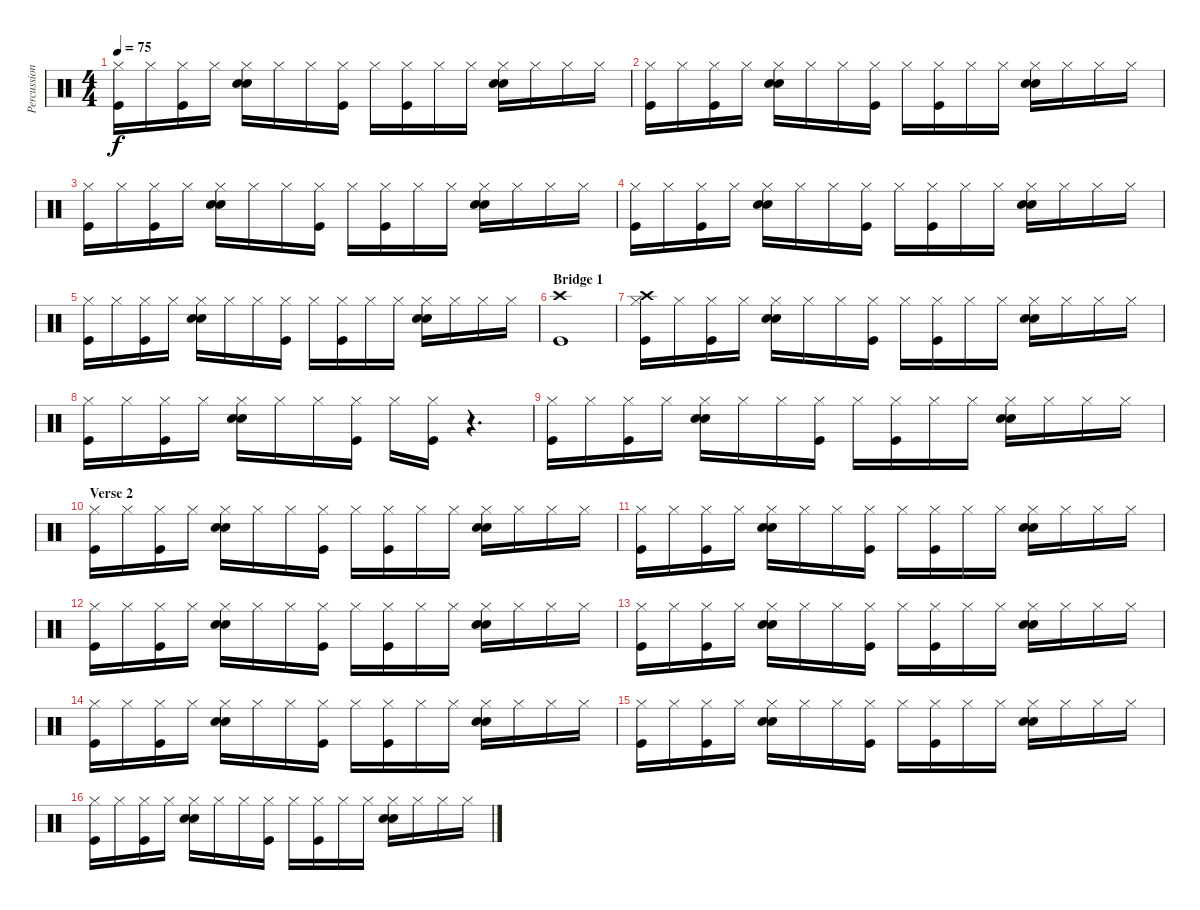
\track ("Percussion" "Percussion") {instrument percussion}
\staff {score}
\articulation defaults
\ts (4 4)
\tempo 75
\clef neutral
\ks c
("Kick (hit)" "Hi-Hat (closed)").16{dy f} "Hi-Hat (closed)".16 ("Kick (hit)" "Hi-Hat (closed)").16 "Hi-Hat (closed)".16 ("Snare (hit) 2" "Electric Snare (hit)" "Hi-Hat (closed)").16 "Hi-Hat (closed)".16 "Hi-Hat (closed)".16 ("Kick (hit)" "Hi-Hat (closed)").16 "Hi-Hat (closed)".16 ("Kick (hit)" "Hi-Hat (closed)").16 "Hi-Hat (closed)".16 "Hi-Hat (closed)".16 ("Snare (hit) 2" "Electric Snare (hit)" "Hi-Hat (closed)").16 "Hi-Hat (closed)".16 "Hi-Hat (closed)".16 "Hi-Hat (closed)".16 |
("Kick (hit)" "Hi-Hat (closed)").16 "Hi-Hat (closed)".16 ("Kick (hit)" "Hi-Hat (closed)").16 "Hi-Hat (closed)".16 ("Snare (hit) 2" "Electric Snare (hit)" "Hi-Hat (closed)").16 "Hi-Hat (closed)".16 "Hi-Hat (closed)".16 ("Kick (hit)" "Hi-Hat (closed)").16 "Hi-Hat (closed)".16 ("Kick (hit)" "Hi-Hat (closed)").16 "Hi-Hat (closed)".16 "Hi-Hat (closed)".16 ("Snare (hit) 2" "Electric Snare (hit)" "Hi-Hat (closed)").16 "Hi-Hat (closed)".16 "Hi-Hat (closed)".16 "Hi-Hat (closed)".16 |
("Kick (hit)" "Hi-Hat (closed)").16 "Hi-Hat (closed)".16 ("Kick (hit)" "Hi-Hat (closed)").16 "Hi-Hat (closed)".16 ("Snare (hit) 2" "Electric Snare (hit)" "Hi-Hat (closed)").16 "Hi-Hat (closed)".16 "Hi-Hat (closed)".16 ("Kick (hit)" "Hi-Hat (closed)").16 "Hi-Hat (closed)".16 ("Kick (hit)" "Hi-Hat (closed)").16 "Hi-Hat (closed)".16 "Hi-Hat (closed)".16 ("Snare (hit) 2" "Electric Snare (hit)" "Hi-Hat (closed)").16 "Hi-Hat (closed)".16 "Hi-Hat (closed)".16 "Hi-Hat (closed)".16 |
("Kick (hit)" "Hi-Hat (closed)").16 "Hi-Hat (closed)".16 ("Kick (hit)" "Hi-Hat (closed)").16 "Hi-Hat (closed)".16 ("Snare (hit) 2" "Electric Snare (hit)" "Hi-Hat (closed)").16 "Hi-Hat (closed)".16 "Hi-Hat (closed)".16 ("Kick (hit)" "Hi-Hat (closed)").16 "Hi-Hat (closed)".16 ("Kick (hit)" "Hi-Hat (closed)").16 "Hi-Hat (closed)".16 "Hi-Hat (closed)".16 ("Snare (hit) 2" "Electric Snare (hit)" "Hi-Hat (closed)").16 "Hi-Hat (closed)".16 "Hi-Hat (closed)".16 "Hi-Hat (closed)".16 |
("Kick (hit)" "Hi-Hat (closed)").16 "Hi-Hat (closed)".16 ("Kick (hit)" "Hi-Hat (closed)").16 "Hi-Hat (closed)".16 ("Snare (hit) 2" "Electric Snare (hit)" "Hi-Hat (closed)").16 "Hi-Hat (closed)".16 "Hi-Hat (closed)".16 ("Kick (hit)" "Hi-Hat (closed)").16 "Hi-Hat (closed)".16 ("Kick (hit)" "Hi-Hat (closed)").16 "Hi-Hat (closed)".16 "Hi-Hat (closed)".16 ("Snare (hit) 2" "Electric Snare (hit)" "Hi-Hat (closed)").16 "Hi-Hat (closed)".16 "Hi-Hat (closed)".16 "Hi-Hat (closed)".16 |
\section ("" "Bridge 1")
("Kick (hit)" "Crash high (hit)").1 |
("Kick (hit)" "Crash high (hit)" "Hi-Hat (closed)").16 "Hi-Hat (closed)".16 ("Kick (hit)" "Hi-Hat (closed)").16 "Hi-Hat (closed)".16 ("Snare (hit) 2" "Electric Snare (hit)" "Hi-Hat (closed)").16 "Hi-Hat (closed)".16 "Hi-Hat (closed)".16 ("Kick (hit)" "Hi-Hat (closed)").16 "Hi-Hat (closed)".16 ("Kick (hit)" "Hi-Hat (closed)").16 "Hi-Hat (closed)".16 "Hi-Hat (closed)".16 ("Snare (hit) 2" "Electric Snare (hit)" "Hi-Hat (closed)").16 "Hi-Hat (closed)".16 "Hi-Hat (closed)".16 "Hi-Hat (closed)".16 |
("Kick (hit)" "Hi-Hat (closed)").16 "Hi-Hat (closed)".16 ("Kick (hit)" "Hi-Hat (closed)").16 "Hi-Hat (closed)".16 ("Snare (hit) 2" "Electric Snare (hit)" "Hi-Hat (closed)").16 "Hi-Hat (closed)".16 "Hi-Hat (closed)".16 ("Kick (hit)" "Hi-Hat (closed)").16 "Hi-Hat (closed)".16 ("Kick (hit)" "Hi-Hat (closed)").16 r.4{d} |
("Kick (hit)" "Hi-Hat (closed)").16 "Hi-Hat (closed)".16 ("Kick (hit)" "Hi-Hat (closed)").16 "Hi-Hat (closed)".16 ("Snare (hit) 2" "Electric Snare (hit)" "Hi-Hat (closed)").16 "Hi-Hat (closed)".16 "Hi-Hat (closed)".16 ("Kick (hit)" "Hi-Hat (closed)").16 "Hi-Hat (closed)".16 ("Kick (hit)" "Hi-Hat (closed)").16 "Hi-Hat (closed)".16 "Hi-Hat (closed)".16 ("Snare (hit) 2" "Electric Snare (hit)" "Hi-Hat (closed)").16 "Hi-Hat (closed)".16 "Hi-Hat (closed)".16 "Hi-Hat (closed)".16 |
\section ("" "Verse 2")
("Kick (hit)" "Hi-Hat (closed)").16 "Hi-Hat (closed)".16 ("Kick (hit)" "Hi-Hat (closed)").16 "Hi-Hat (closed)".16 ("Snare (hit) 2" "Electric Snare (hit)" "Hi-Hat (closed)").16 "Hi-Hat (closed)".16 "Hi-Hat (closed)".16 ("Kick (hit)" "Hi-Hat (closed)").16 "Hi-Hat (closed)".16 ("Kick (hit)" "Hi-Hat (closed)").16 "Hi-Hat (closed)".16 "Hi-Hat (closed)".16 ("Snare (hit) 2" "Electric Snare (hit)" "Hi-Hat (closed)").16 "Hi-Hat (closed)".16 "Hi-Hat (closed)".16 "Hi-Hat (closed)".16 |
("Kick (hit)" "Hi-Hat (closed)").16 "Hi-Hat (closed)".16 ("Kick (hit)" "Hi-Hat (closed)").16 "Hi-Hat (closed)".16 ("Snare (hit) 2" "Electric Snare (hit)" "Hi-Hat (closed)").16 "Hi-Hat (closed)".16 "Hi-Hat (closed)".16 ("Kick (hit)" "Hi-Hat (closed)").16 "Hi-Hat (closed)".16 ("Kick (hit)" "Hi-Hat (closed)").16 "Hi-Hat (closed)".16 "Hi-Hat (closed)".16 ("Snare (hit) 2" "Electric Snare (hit)" "Hi-Hat (closed)").16 "Hi-Hat (closed)".16 "Hi-Hat (closed)".16 "Hi-Hat (closed)".16 |
("Kick (hit)" "Hi-Hat (closed)").16 "Hi-Hat (closed)".16 ("Kick (hit)" "Hi-Hat (closed)").16 "Hi-Hat (closed)".16 ("Snare (hit) 2" "Electric Snare (hit)" "Hi-Hat (closed)").16 "Hi-Hat (closed)".16 "Hi-Hat (closed)".16 ("Kick (hit)" "Hi-Hat (closed)").16 "Hi-Hat (closed)".16 ("Kick (hit)" "Hi-Hat (closed)").16 "Hi-Hat (closed)".16 "Hi-Hat (closed)".16 ("Snare (hit) 2" "Electric Snare (hit)" "Hi-Hat (closed)").16 "Hi-Hat (closed)".16 "Hi-Hat (closed)".16 "Hi-Hat (closed)".16 |
("Kick (hit)" "Hi-Hat (closed)").16 "Hi-Hat (closed)".16 ("Kick (hit)" "Hi-Hat (closed)").16 "Hi-Hat (closed)".16 ("Snare (hit) 2" "Electric Snare (hit)" "Hi-Hat (closed)").16 "Hi-Hat (closed)".16 "Hi-Hat (closed)".16 ("Kick (hit)" "Hi-Hat (closed)").16 "Hi-Hat (closed)".16 ("Kick (hit)" "Hi-Hat (closed)").16 "Hi-Hat (closed)".16 "Hi-Hat (closed)".16 ("Snare (hit) 2" "Electric Snare (hit)" "Hi-Hat (closed)").16 "Hi-Hat (closed)".16 "Hi-Hat (closed)".16 "Hi-Hat (closed)".16 |
("Kick (hit)" "Hi-Hat (closed)").16 "Hi-Hat (closed)".16 ("Kick (hit)" "Hi-Hat (closed)").16 "Hi-Hat (closed)".16 ("Snare (hit) 2" "Electric Snare (hit)" "Hi-Hat (closed)").16 "Hi-Hat (closed)".16 "Hi-Hat (closed)".16 ("Kick (hit)" "Hi-Hat (closed)").16 "Hi-Hat (closed)".16 ("Kick (hit)" "Hi-Hat (closed)").16 "Hi-Hat (closed)".16 "Hi-Hat (closed)".16 ("Snare (hit) 2" "Electric Snare (hit)" "Hi-Hat (closed)").16 "Hi-Hat (closed)".16 "Hi-Hat (closed)".16 "Hi-Hat (closed)".16 |
("Kick (hit)" "Hi-Hat (closed)").16 "Hi-Hat (closed)".16 ("Kick (hit)" "Hi-Hat (closed)").16 "Hi-Hat (closed)".16 ("Snare (hit) 2" "Electric Snare (hit)" "Hi-Hat (closed)").16 "Hi-Hat (closed)".16 "Hi-Hat (closed)".16 ("Kick (hit)" "Hi-Hat (closed)").16 "Hi-Hat (closed)".16 ("Kick (hit)" "Hi-Hat (closed)").16 "Hi-Hat (closed)".16 "Hi-Hat (closed)".16 ("Snare (hit) 2" "Electric Snare (hit)" "Hi-Hat (closed)").16 "Hi-Hat (closed)".16 "Hi-Hat (closed)".16 "Hi-Hat (closed)".16 |
("Kick (hit)" "Hi-Hat (closed)").16 "Hi-Hat (closed)".16 ("Kick (hit)" "Hi-Hat (closed)").16 "Hi-Hat (closed)".16 ("Snare (hit) 2" "Electric Snare (hit)" "Hi-Hat (closed)").16 "Hi-Hat (closed)".16 "Hi-Hat (closed)".16 ("Kick (hit)" "Hi-Hat (closed)").16 "Hi-Hat (closed)".16 ("Kick (hit)" "Hi-Hat (closed)").16 "Hi-Hat (closed)".16 "Hi-Hat (closed)".16 ("Snare (hit) 2" "Electric Snare (hit)" "Hi-Hat (closed)").16 "Hi-Hat (closed)".16 "Hi-Hat (closed)".16 "Hi-Hat (closed)".16
